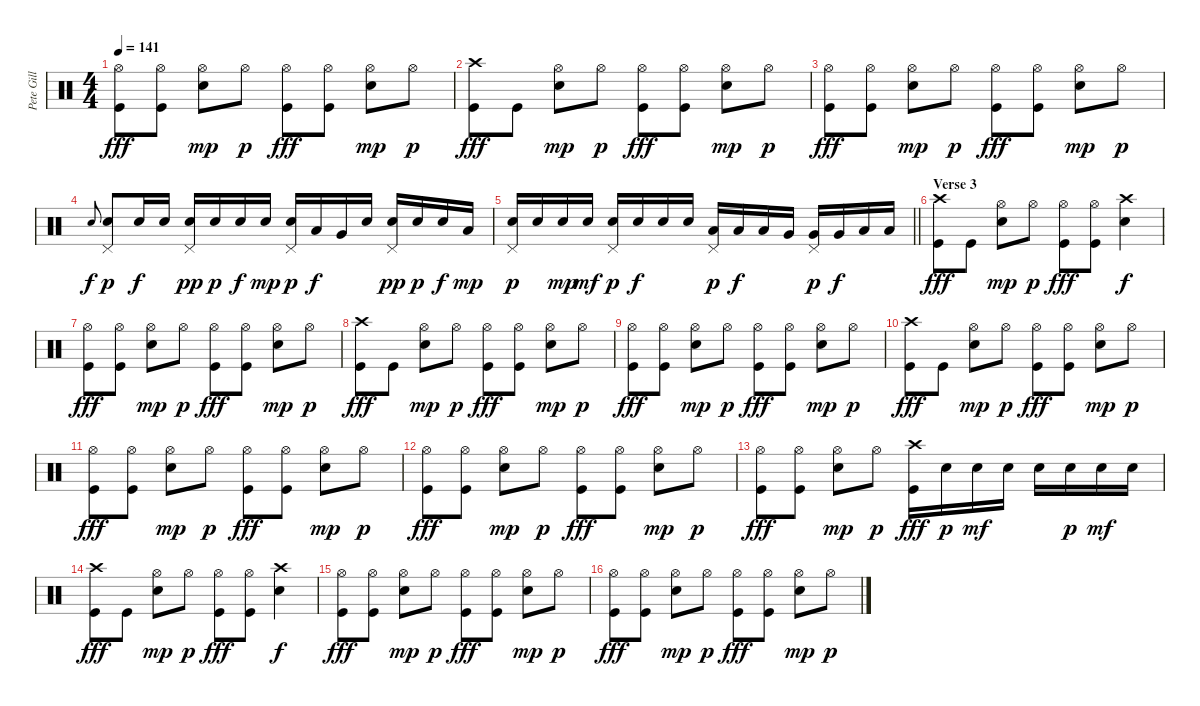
\track ("Pete Gill" "Pete Gill") {instrument percussion}
\staff {score}
\articulation defaults
\ts (4 4)
\tempo 141
\clef neutral
\ks c
("Hi-Hat (open)" "Kick (hit)").8{dy fff} ("Hi-Hat (open)" "Kick (hit)").8 ("Hi-Hat (open)" "Electric Snare (hit)").8{dy mp} "Hi-Hat (open)".8{dy p} ("Hi-Hat (open)" "Kick (hit)").8{dy fff} ("Hi-Hat (open)" "Kick (hit)").8 ("Hi-Hat (open)" "Electric Snare (hit)").8{dy mp} "Hi-Hat (open)".8{dy p} |
("Crash high (hit)" "Kick (hit)").8{dy fff} "Kick (hit)".8 ("Hi-Hat (open)" "Electric Snare (hit)").8{dy mp} "Hi-Hat (open)".8{dy p} ("Hi-Hat (open)" "Kick (hit)").8{dy fff} ("Hi-Hat (open)" "Kick (hit)").8 ("Hi-Hat (open)" "Electric Snare (hit)").8{dy mp} "Hi-Hat (open)".8{dy p} |
("Hi-Hat (open)" "Kick (hit)").8{dy fff} ("Hi-Hat (open)" "Kick (hit)").8 ("Hi-Hat (open)" "Electric Snare (hit)").8{dy mp} "Hi-Hat (open)".8{dy p} ("Hi-Hat (open)" "Kick (hit)").8{dy fff} ("Hi-Hat (open)" "Kick (hit)").8 ("Hi-Hat (open)" "Electric Snare (hit)").8{dy mp} "Hi-Hat (open)".8{dy p} |
"Electric Snare (hit)".8{gr onbeat dy f} ("Pedal Hi-Hat (hit)" "Electric Snare (hit)").8{dy p} "Electric Snare (hit)".16{dy f} "Electric Snare (hit)".16 ("Pedal Hi-Hat (hit)" "Electric Snare (hit)").16{dy pp} "Electric Snare (hit)".16{dy p} "Electric Snare (hit)".16{dy f} "Electric Snare (hit)".16{dy mp} ("Pedal Hi-Hat (hit)" "Electric Snare (hit)").16{dy p} "Low Tom (hit)".16{dy f} "Very Low Tom (hit)".16 "Electric Snare (hit)".16 ("Pedal Hi-Hat (hit)" "Electric Snare (hit)").16{dy pp} "Electric Snare (hit)".16{dy p} "Electric Snare (hit)".16{dy f} "Low Tom (hit)".16{dy mp} |
\barLineRight lightlight
("Pedal Hi-Hat (hit)" "Electric Snare (hit)").16{dy p} "Electric Snare (hit)".16 "Electric Snare (hit)".16{dy mp} "Electric Snare (hit)".16{dy mf} ("Pedal Hi-Hat (hit)" "Electric Snare (hit)").16{dy p} "Electric Snare (hit)".16{dy f} "Electric Snare (hit)".16 "Electric Snare (hit)".16 ("Pedal Hi-Hat (hit)" "Low Tom (hit)").16{dy p} "Low Tom (hit)".16{dy f} "Low Tom (hit)".16 "Very Low Tom (hit)".16 ("Pedal Hi-Hat (hit)" "Very Low Tom (hit)").16{dy p} "Very Low Tom (hit)".16{dy f} "Low Floor Tom (hit)".16 "Low Floor Tom (hit)".16 |
\section ("" "Verse 3")
("Crash high (hit)" "Kick (hit)").8{dy fff} "Kick (hit)".8 ("Hi-Hat (open)" "Electric Snare (hit)").8{dy mp} "Hi-Hat (open)".8{dy p} ("Hi-Hat (open)" "Kick (hit)").8{dy fff} ("Hi-Hat (open)" "Kick (hit)").8 ("Crash high (hit)" "Electric Snare (hit)").4{dy f} |
("Hi-Hat (open)" "Kick (hit)").8{dy fff} ("Hi-Hat (open)" "Kick (hit)").8 ("Hi-Hat (open)" "Electric Snare (hit)").8{dy mp} "Hi-Hat (open)".8{dy p} ("Hi-Hat (open)" "Kick (hit)").8{dy fff} ("Hi-Hat (open)" "Kick (hit)").8 ("Hi-Hat (open)" "Electric Snare (hit)").8{dy mp} "Hi-Hat (open)".8{dy p} |
("Crash high (hit)" "Kick (hit)").8{dy fff} "Kick (hit)".8 ("Hi-Hat (open)" "Electric Snare (hit)").8{dy mp} "Hi-Hat (open)".8{dy p} ("Hi-Hat (open)" "Kick (hit)").8{dy fff} ("Hi-Hat (open)" "Kick (hit)").8 ("Hi-Hat (open)" "Electric Snare (hit)").8{dy mp} "Hi-Hat (open)".8{dy p} |
("Hi-Hat (open)" "Kick (hit)").8{dy fff} ("Hi-Hat (open)" "Kick (hit)").8 ("Hi-Hat (open)" "Electric Snare (hit)").8{dy mp} "Hi-Hat (open)".8{dy p} ("Hi-Hat (open)" "Kick (hit)").8{dy fff} ("Hi-Hat (open)" "Kick (hit)").8 ("Hi-Hat (open)" "Electric Snare (hit)").8{dy mp} "Hi-Hat (open)".8{dy p} |
("Crash high (hit)" "Kick (hit)").8{dy fff} "Kick (hit)".8 ("Hi-Hat (open)" "Electric Snare (hit)").8{dy mp} "Hi-Hat (open)".8{dy p} ("Hi-Hat (open)" "Kick (hit)").8{dy fff} ("Hi-Hat (open)" "Kick (hit)").8 ("Hi-Hat (open)" "Electric Snare (hit)").8{dy mp} "Hi-Hat (open)".8{dy p} |
("Hi-Hat (open)" "Kick (hit)").8{dy fff} ("Hi-Hat (open)" "Kick (hit)").8 ("Hi-Hat (open)" "Electric Snare (hit)").8{dy mp} "Hi-Hat (open)".8{dy p} ("Hi-Hat (open)" "Kick (hit)").8{dy fff} ("Hi-Hat (open)" "Kick (hit)").8 ("Hi-Hat (open)" "Electric Snare (hit)").8{dy mp} "Hi-Hat (open)".8{dy p} |
("Hi-Hat (open)" "Kick (hit)").8{dy fff} ("Hi-Hat (open)" "Kick (hit)").8 ("Hi-Hat (open)" "Electric Snare (hit)").8{dy mp} "Hi-Hat (open)".8{dy p} ("Hi-Hat (open)" "Kick (hit)").8{dy fff} ("Hi-Hat (open)" "Kick (hit)").8 ("Hi-Hat (open)" "Electric Snare (hit)").8{dy mp} "Hi-Hat (open)".8{dy p} |
("Hi-Hat (open)" "Kick (hit)").8{dy fff} ("Hi-Hat (open)" "Kick (hit)").8 ("Hi-Hat (open)" "Electric Snare (hit)").8{dy mp} "Hi-Hat (open)".8{dy p} ("Crash high (hit)" "Kick (hit)").16{dy fff} "Electric Snare (hit)".16{dy p} "Electric Snare (hit)".16{dy mf} "Electric Snare (hit)".16 "Electric Snare (hit)".16 "Electric Snare (hit)".16{dy p} "Electric Snare (hit)".16{dy mf} "Electric Snare (hit)".16 |
("Crash high (hit)" "Kick (hit)").8{dy fff} "Kick (hit)".8 ("Hi-Hat (open)" "Electric Snare (hit)").8{dy mp} "Hi-Hat (open)".8{dy p} ("Hi-Hat (open)" "Kick (hit)").8{dy fff} ("Hi-Hat (open)" "Kick (hit)").8 ("Crash high (hit)" "Electric Snare (hit)").4{dy f} |
("Hi-Hat (open)" "Kick (hit)").8{dy fff} ("Hi-Hat (open)" "Kick (hit)").8 ("Hi-Hat (open)" "Electric Snare (hit)").8{dy mp} "Hi-Hat (open)".8{dy p} ("Hi-Hat (open)" "Kick (hit)").8{dy fff} ("Hi-Hat (open)" "Kick (hit)").8 ("Hi-Hat (open)" "Electric Snare (hit)").8{dy mp} "Hi-Hat (open)".8{dy p} |
("Hi-Hat (open)" "Kick (hit)").8{dy fff} ("Hi-Hat (open)" "Kick (hit)").8 ("Hi-Hat (open)" "Electric Snare (hit)").8{dy mp} "Hi-Hat (open)".8{dy p} ("Hi-Hat (open)" "Kick (hit)").8{dy fff} ("Hi-Hat (open)" "Kick (hit)").8 ("Hi-Hat (open)" "Electric Snare (hit)").8{dy mp} "Hi-Hat (open)".8{dy p}
